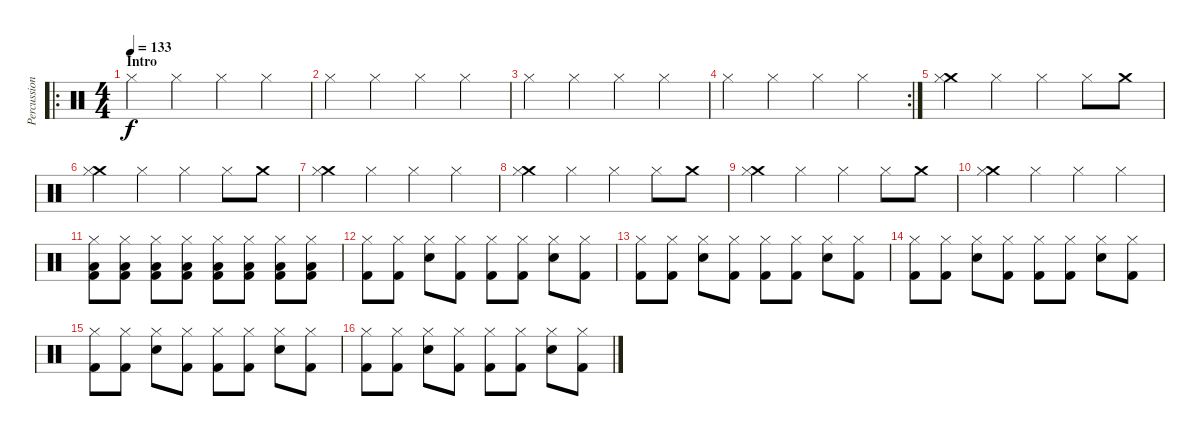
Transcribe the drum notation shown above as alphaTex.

\track ("Percussion" "Percussion") {instrument percussion}
\staff {score}
\articulation defaults
\ro
\ts (4 4)
\section ("" "Intro")
\tempo 133
\clef neutral
\ks c "Hi-Hat (closed)".4{dy f} "Hi-Hat (closed)".4 "Hi-Hat (closed)".4 "Hi-Hat (closed)".4
|
"Hi-Hat (closed)".4 "Hi-Hat (closed)".4 "Hi-Hat (closed)".4 "Hi-Hat (closed)".4 |
"Hi-Hat (closed)".4 "Hi-Hat (closed)".4 "Hi-Hat (closed)".4 "Hi-Hat (closed)".4 |
\rc 2 "Hi-Hat (closed)".4 "Hi-Hat (closed)".4 "Hi-Hat (closed)".4 "Hi-Hat (closed)".4
|
("Crash medium (hit)" "Hi-Hat (closed)").4 "Hi-Hat (closed)".4 "Hi-Hat (closed)".4 "Hi-Hat (closed)".8 "Crash medium (hit)".8 |
("Crash medium (hit)" "Hi-Hat (closed)").4 "Hi-Hat (closed)".4 "Hi-Hat (closed)".4 "Hi-Hat (closed)".8 "Crash medium (hit)".8 |
("Crash medium (hit)" "Hi-Hat (closed)").4 "Hi-Hat (closed)".4 "Hi-Hat (closed)".4 "Hi-Hat (closed)".4 |
("Crash medium (hit)" "Hi-Hat (closed)").4 "Hi-Hat (closed)".4 "Hi-Hat (closed)".4 "Hi-Hat (closed)".8 "Crash medium (hit)".8 |
("Crash medium (hit)" "Hi-Hat (closed)").4 "Hi-Hat (closed)".4 "Hi-Hat (closed)".4 "Hi-Hat (closed)".8 "Crash medium (hit)".8 |
("Crash medium (hit)" "Hi-Hat (closed)").4 "Hi-Hat (closed)".4 "Hi-Hat (closed)".4 "Hi-Hat (closed)".4 |
("Hi-Hat (closed)" "Kick (hit) 2" "Low Floor Tom (hit)").8 ("Hi-Hat (closed)" "Kick (hit) 2" "Low Floor Tom (hit)").8 ("Hi-Hat (closed)" "Kick (hit) 2" "Low Floor Tom (hit)").8 ("Hi-Hat (closed)" "Kick (hit) 2" "Low Floor Tom (hit)").8 ("Hi-Hat (closed)" "Kick (hit) 2" "Low Floor Tom (hit)").8 ("Hi-Hat (closed)" "Kick (hit) 2" "Low Floor Tom (hit)").8 ("Hi-Hat (closed)" "Kick (hit) 2" "Low Floor Tom (hit)").8 ("Hi-Hat (closed)" "Kick (hit) 2" "Low Floor Tom (hit)").8 |
("Hi-Hat (closed)" "Kick (hit) 2").8 ("Hi-Hat (closed)" "Kick (hit) 2").8 ("Electric Snare (hit)" "Hi-Hat (closed)").8 ("Hi-Hat (closed)" "Kick (hit) 2").8 ("Hi-Hat (closed)" "Kick (hit) 2").8 ("Hi-Hat (closed)" "Kick (hit) 2").8 ("Electric Snare (hit)" "Hi-Hat (closed)").8 ("Hi-Hat (closed)" "Kick (hit) 2").8 |
("Hi-Hat (closed)" "Kick (hit) 2").8 ("Hi-Hat (closed)" "Kick (hit) 2").8 ("Electric Snare (hit)" "Hi-Hat (closed)").8 ("Hi-Hat (closed)" "Kick (hit) 2").8 ("Hi-Hat (closed)" "Kick (hit) 2").8 ("Hi-Hat (closed)" "Kick (hit) 2").8 ("Electric Snare (hit)" "Hi-Hat (closed)").8 ("Hi-Hat (closed)" "Kick (hit) 2").8 |
("Hi-Hat (closed)" "Kick (hit) 2").8 ("Hi-Hat (closed)" "Kick (hit) 2").8 ("Electric Snare (hit)" "Hi-Hat (closed)").8 ("Hi-Hat (closed)" "Kick (hit) 2").8 ("Hi-Hat (closed)" "Kick (hit) 2").8 ("Hi-Hat (closed)" "Kick (hit) 2").8 ("Electric Snare (hit)" "Hi-Hat (closed)").8 ("Hi-Hat (closed)" "Kick (hit) 2").8 |
("Hi-Hat (closed)" "Kick (hit) 2").8 ("Hi-Hat (closed)" "Kick (hit) 2").8 ("Electric Snare (hit)" "Hi-Hat (closed)").8 ("Hi-Hat (closed)" "Kick (hit) 2").8 ("Hi-Hat (closed)" "Kick (hit) 2").8 ("Hi-Hat (closed)" "Kick (hit) 2").8 ("Electric Snare (hit)" "Hi-Hat (closed)").8 ("Hi-Hat (closed)" "Kick (hit) 2").8 |
("Hi-Hat (closed)" "Kick (hit) 2").8 ("Hi-Hat (closed)" "Kick (hit) 2").8 ("Electric Snare (hit)" "Hi-Hat (closed)").8 ("Hi-Hat (closed)" "Kick (hit) 2").8 ("Hi-Hat (closed)" "Kick (hit) 2").8 ("Hi-Hat (closed)" "Kick (hit) 2").8 ("Electric Snare (hit)" "Hi-Hat (closed)").8 ("Hi-Hat (closed)" "Kick (hit) 2").8
